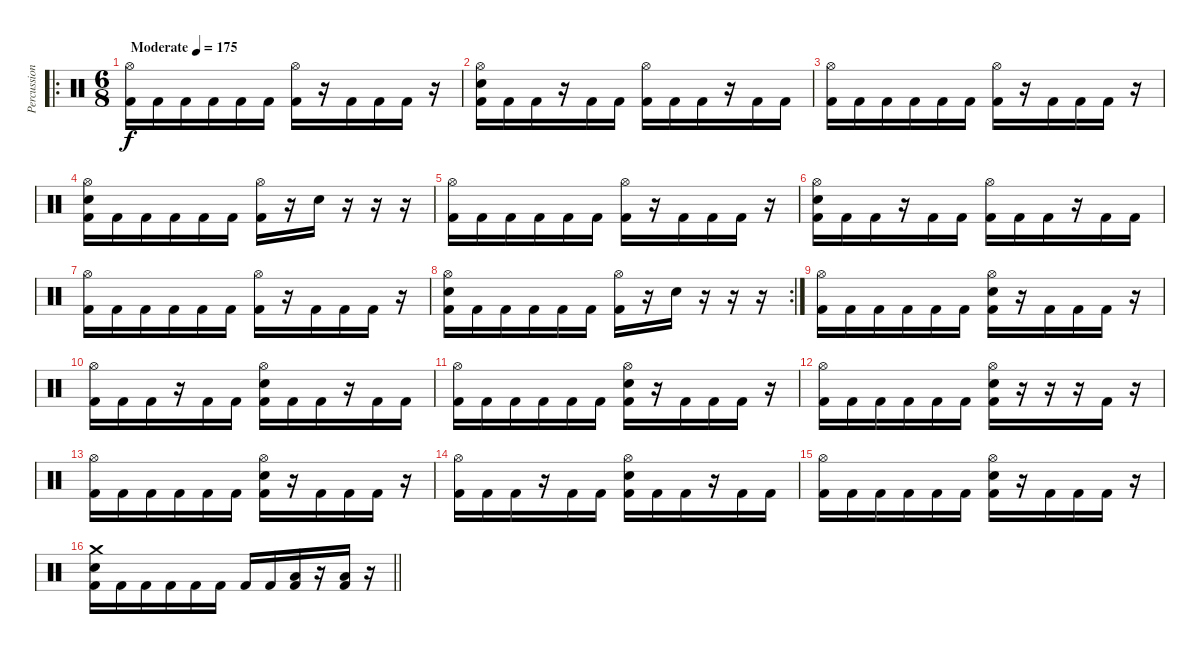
\track ("Percussion" "Percussion") {instrument percussion}
\staff {score}
\articulation defaults
\ro
\ts (6 8)
\tempo (175 "Moderate")
\clef neutral
\ks c
("Hi-Hat (open)" "Kick (hit) 2").16{dy f} "Kick (hit) 2".16 "Kick (hit) 2".16 "Kick (hit) 2".16 "Kick (hit) 2".16 "Kick (hit) 2".16 ("Hi-Hat (open)" "Kick (hit) 2").16 r.16 "Kick (hit) 2".16 "Kick (hit) 2".16 "Kick (hit) 2".16 r.16 |
("Hi-Hat (open)" "Electric Snare (hit)" "Kick (hit) 2").16 "Kick (hit) 2".16 "Kick (hit) 2".16 r.16 "Kick (hit) 2".16 "Kick (hit) 2".16 ("Hi-Hat (open)" "Kick (hit) 2").16 "Kick (hit) 2".16 "Kick (hit) 2".16 r.16 "Kick (hit) 2".16 "Kick (hit) 2".16 |
("Hi-Hat (open)" "Kick (hit) 2").16 "Kick (hit) 2".16 "Kick (hit) 2".16 "Kick (hit) 2".16 "Kick (hit) 2".16 "Kick (hit) 2".16 ("Hi-Hat (open)" "Kick (hit) 2").16 r.16 "Kick (hit) 2".16 "Kick (hit) 2".16 "Kick (hit) 2".16 r.16 |
("Electric Snare (hit)" "Hi-Hat (open)" "Kick (hit) 2").16 "Kick (hit) 2".16 "Kick (hit) 2".16 "Kick (hit) 2".16 "Kick (hit) 2".16 "Kick (hit) 2".16 ("Hi-Hat (open)" "Kick (hit) 2").16 r.16 "Electric Snare (hit)".16 r.16 r.16 r.16 |
("Hi-Hat (open)" "Kick (hit) 2").16 "Kick (hit) 2".16 "Kick (hit) 2".16 "Kick (hit) 2".16 "Kick (hit) 2".16 "Kick (hit) 2".16 ("Hi-Hat (open)" "Kick (hit) 2").16 r.16 "Kick (hit) 2".16 "Kick (hit) 2".16 "Kick (hit) 2".16 r.16 |
("Hi-Hat (open)" "Electric Snare (hit)" "Kick (hit) 2").16 "Kick (hit) 2".16 "Kick (hit) 2".16 r.16 "Kick (hit) 2".16 "Kick (hit) 2".16 ("Hi-Hat (open)" "Kick (hit) 2").16 "Kick (hit) 2".16 "Kick (hit) 2".16 r.16 "Kick (hit) 2".16 "Kick (hit) 2".16 |
("Hi-Hat (open)" "Kick (hit) 2").16 "Kick (hit) 2".16 "Kick (hit) 2".16 "Kick (hit) 2".16 "Kick (hit) 2".16 "Kick (hit) 2".16 ("Hi-Hat (open)" "Kick (hit) 2").16 r.16 "Kick (hit) 2".16 "Kick (hit) 2".16 "Kick (hit) 2".16 r.16 |
\rc 2
("Electric Snare (hit)" "Hi-Hat (open)" "Kick (hit) 2").16 "Kick (hit) 2".16 "Kick (hit) 2".16 "Kick (hit) 2".16 "Kick (hit) 2".16 "Kick (hit) 2".16 ("Hi-Hat (open)" "Kick (hit) 2").16 r.16 "Electric Snare (hit)".16 r.16 r.16 r.16 |
("Hi-Hat (open)" "Kick (hit) 2").16 "Kick (hit) 2".16 "Kick (hit) 2".16 "Kick (hit) 2".16 "Kick (hit) 2".16 "Kick (hit) 2".16 ("Hi-Hat (open)" "Electric Snare (hit)" "Kick (hit) 2").16 r.16 "Kick (hit) 2".16 "Kick (hit) 2".16 "Kick (hit) 2".16 r.16 |
("Hi-Hat (open)" "Kick (hit) 2").16 "Kick (hit) 2".16 "Kick (hit) 2".16 r.16 "Kick (hit) 2".16 "Kick (hit) 2".16 ("Hi-Hat (open)" "Electric Snare (hit)" "Kick (hit) 2").16 "Kick (hit) 2".16 "Kick (hit) 2".16 r.16 "Kick (hit) 2".16 "Kick (hit) 2".16 |
("Hi-Hat (open)" "Kick (hit) 2").16 "Kick (hit) 2".16 "Kick (hit) 2".16 "Kick (hit) 2".16 "Kick (hit) 2".16 "Kick (hit) 2".16 ("Hi-Hat (open)" "Electric Snare (hit)" "Kick (hit) 2").16 r.16 "Kick (hit) 2".16 "Kick (hit) 2".16 "Kick (hit) 2".16 r.16 |
("Hi-Hat (open)" "Kick (hit) 2").16 "Kick (hit) 2".16 "Kick (hit) 2".16 "Kick (hit) 2".16 "Kick (hit) 2".16 "Kick (hit) 2".16 ("Hi-Hat (open)" "Electric Snare (hit)" "Kick (hit) 2").16 r.16 r.16 r.16 "Kick (hit) 2".16 r.16 |
("Hi-Hat (open)" "Kick (hit) 2").16 "Kick (hit) 2".16 "Kick (hit) 2".16 "Kick (hit) 2".16 "Kick (hit) 2".16 "Kick (hit) 2".16 ("Hi-Hat (open)" "Electric Snare (hit)" "Kick (hit) 2").16 r.16 "Kick (hit) 2".16 "Kick (hit) 2".16 "Kick (hit) 2".16 r.16 |
("Hi-Hat (open)" "Kick (hit) 2").16 "Kick (hit) 2".16 "Kick (hit) 2".16 r.16 "Kick (hit) 2".16 "Kick (hit) 2".16 ("Hi-Hat (open)" "Electric Snare (hit)" "Kick (hit) 2").16 "Kick (hit) 2".16 "Kick (hit) 2".16 r.16 "Kick (hit) 2".16 "Kick (hit) 2".16 |
("Hi-Hat (open)" "Kick (hit) 2").16 "Kick (hit) 2".16 "Kick (hit) 2".16 "Kick (hit) 2".16 "Kick (hit) 2".16 "Kick (hit) 2".16 ("Hi-Hat (open)" "Electric Snare (hit)" "Kick (hit) 2").16 r.16 "Kick (hit) 2".16 "Kick (hit) 2".16 "Kick (hit) 2".16 r.16 |
\barLineRight lightlight
("Crash medium (hit)" "Electric Snare (hit)" "Kick (hit) 2").16 "Kick (hit) 2".16 "Kick (hit) 2".16 "Kick (hit) 2".16 "Kick (hit) 2".16 "Kick (hit) 2".16 "Kick (hit) 2".16 "Kick (hit) 2".16 ("Low Floor Tom (hit)" "Kick (hit) 2").16 r.16 ("Low Floor Tom (hit)" "Kick (hit) 2").16 r.16
